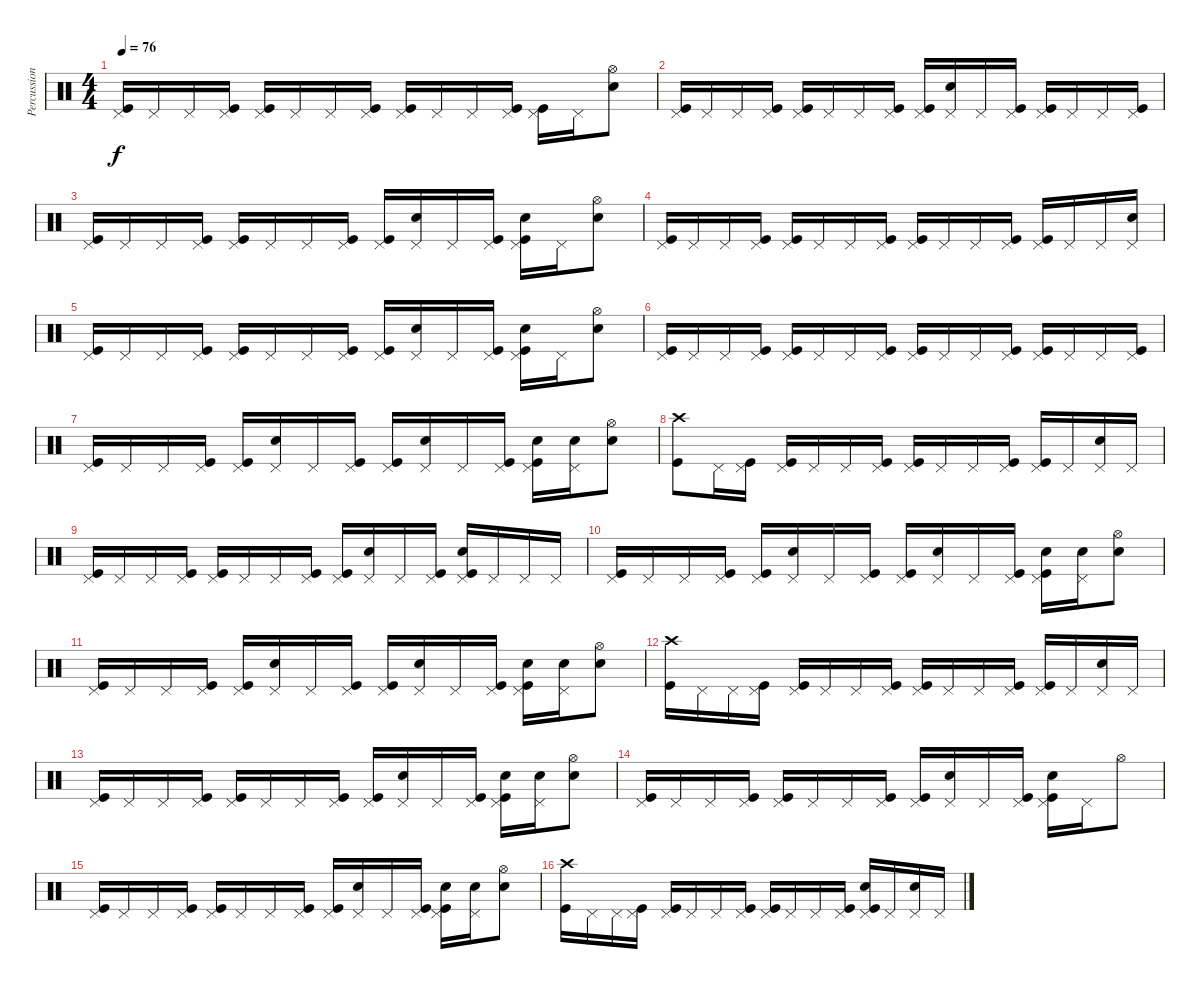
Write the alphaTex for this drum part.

\track ("Percussions" "Percussion") {instrument percussion}
\staff {score}
\articulation defaults
\ts (4 4)
\tempo 76
\clef neutral
\ks c
("Kick (hit)" "Pedal Hi-Hat (hit)").16{dy f} "Pedal Hi-Hat (hit)".16 "Pedal Hi-Hat (hit)".16 ("Pedal Hi-Hat (hit)" "Kick (hit)").16 ("Pedal Hi-Hat (hit)" "Kick (hit)").16 "Pedal Hi-Hat (hit)".16 "Pedal Hi-Hat (hit)".16 ("Pedal Hi-Hat (hit)" "Kick (hit)").16 ("Pedal Hi-Hat (hit)" "Kick (hit)").16 "Pedal Hi-Hat (hit)".16 "Pedal Hi-Hat (hit)".16 ("Pedal Hi-Hat (hit)" "Kick (hit)").16 ("Pedal Hi-Hat (hit)" "Kick (hit)").16 "Pedal Hi-Hat (hit)".16 ("Hi-Hat (open)" "Electric Snare (hit)").8 |
("Kick (hit)" "Pedal Hi-Hat (hit)").16 "Pedal Hi-Hat (hit)".16 "Pedal Hi-Hat (hit)".16 ("Pedal Hi-Hat (hit)" "Kick (hit)").16 ("Pedal Hi-Hat (hit)" "Kick (hit)").16 "Pedal Hi-Hat (hit)".16 "Pedal Hi-Hat (hit)".16 ("Pedal Hi-Hat (hit)" "Kick (hit)").16 ("Pedal Hi-Hat (hit)" "Kick (hit)").16 ("Pedal Hi-Hat (hit)" "Electric Snare (hit)").16 "Pedal Hi-Hat (hit)".16 ("Pedal Hi-Hat (hit)" "Kick (hit)").16 ("Pedal Hi-Hat (hit)" "Kick (hit)").16 "Pedal Hi-Hat (hit)".16 "Pedal Hi-Hat (hit)".16 ("Pedal Hi-Hat (hit)" "Kick (hit)").16 |
("Pedal Hi-Hat (hit)" "Kick (hit)").16 "Pedal Hi-Hat (hit)".16 "Pedal Hi-Hat (hit)".16 ("Pedal Hi-Hat (hit)" "Kick (hit)").16 ("Pedal Hi-Hat (hit)" "Kick (hit)").16 "Pedal Hi-Hat (hit)".16 "Pedal Hi-Hat (hit)".16 ("Pedal Hi-Hat (hit)" "Kick (hit)").16 ("Pedal Hi-Hat (hit)" "Kick (hit)").16 ("Pedal Hi-Hat (hit)" "Electric Snare (hit)").16 "Pedal Hi-Hat (hit)".16 ("Pedal Hi-Hat (hit)" "Kick (hit)").16 ("Pedal Hi-Hat (hit)" "Kick (hit)" "Electric Snare (hit)").16 "Pedal Hi-Hat (hit)".16 ("Electric Snare (hit)" "Hi-Hat (open)").8 |
("Kick (hit)" "Pedal Hi-Hat (hit)").16 "Pedal Hi-Hat (hit)".16 "Pedal Hi-Hat (hit)".16 ("Pedal Hi-Hat (hit)" "Kick (hit)").16 ("Pedal Hi-Hat (hit)" "Kick (hit)").16 "Pedal Hi-Hat (hit)".16 "Pedal Hi-Hat (hit)".16 ("Pedal Hi-Hat (hit)" "Kick (hit)").16 ("Pedal Hi-Hat (hit)" "Kick (hit)").16 "Pedal Hi-Hat (hit)".16 "Pedal Hi-Hat (hit)".16 ("Pedal Hi-Hat (hit)" "Kick (hit)").16 ("Pedal Hi-Hat (hit)" "Kick (hit)").16 "Pedal Hi-Hat (hit)".16 "Pedal Hi-Hat (hit)".16 ("Pedal Hi-Hat (hit)" "Electric Snare (hit)").16 |
("Kick (hit)" "Pedal Hi-Hat (hit)").16 "Pedal Hi-Hat (hit)".16 "Pedal Hi-Hat (hit)".16 ("Pedal Hi-Hat (hit)" "Kick (hit)").16 ("Pedal Hi-Hat (hit)" "Kick (hit)").16 "Pedal Hi-Hat (hit)".16 "Pedal Hi-Hat (hit)".16 ("Pedal Hi-Hat (hit)" "Kick (hit)").16 ("Pedal Hi-Hat (hit)" "Kick (hit)").16 ("Pedal Hi-Hat (hit)" "Electric Snare (hit)").16 "Pedal Hi-Hat (hit)".16 ("Pedal Hi-Hat (hit)" "Kick (hit)").16 ("Pedal Hi-Hat (hit)" "Kick (hit)" "Electric Snare (hit)").16 "Pedal Hi-Hat (hit)".16 ("Hi-Hat (open)" "Electric Snare (hit)").8 |
("Pedal Hi-Hat (hit)" "Kick (hit)").16 "Pedal Hi-Hat (hit)".16 "Pedal Hi-Hat (hit)".16 ("Pedal Hi-Hat (hit)" "Kick (hit)").16 ("Pedal Hi-Hat (hit)" "Kick (hit)").16 "Pedal Hi-Hat (hit)".16 "Pedal Hi-Hat (hit)".16 ("Pedal Hi-Hat (hit)" "Kick (hit)").16 ("Pedal Hi-Hat (hit)" "Kick (hit)").16 "Pedal Hi-Hat (hit)".16 "Pedal Hi-Hat (hit)".16 ("Pedal Hi-Hat (hit)" "Kick (hit)").16 ("Pedal Hi-Hat (hit)" "Kick (hit)").16 "Pedal Hi-Hat (hit)".16 "Pedal Hi-Hat (hit)".16 ("Pedal Hi-Hat (hit)" "Kick (hit)").16 |
("Pedal Hi-Hat (hit)" "Kick (hit)").16 "Pedal Hi-Hat (hit)".16 "Pedal Hi-Hat (hit)".16 ("Pedal Hi-Hat (hit)" "Kick (hit)").16 ("Pedal Hi-Hat (hit)" "Kick (hit)").16 ("Pedal Hi-Hat (hit)" "Electric Snare (hit)").16 "Pedal Hi-Hat (hit)".16 ("Pedal Hi-Hat (hit)" "Kick (hit)").16 ("Pedal Hi-Hat (hit)" "Kick (hit)").16 ("Pedal Hi-Hat (hit)" "Electric Snare (hit)").16 "Pedal Hi-Hat (hit)".16 ("Pedal Hi-Hat (hit)" "Kick (hit)").16 ("Pedal Hi-Hat (hit)" "Kick (hit)" "Electric Snare (hit)").16 ("Pedal Hi-Hat (hit)" "Electric Snare (hit)").16 ("Electric Snare (hit)" "Hi-Hat (open)").8 |
("Kick (hit)" "Crash high (hit)").8 "Pedal Hi-Hat (hit)".16 ("Pedal Hi-Hat (hit)" "Kick (hit)").16 ("Pedal Hi-Hat (hit)" "Kick (hit)").16 "Pedal Hi-Hat (hit)".16 "Pedal Hi-Hat (hit)".16 ("Pedal Hi-Hat (hit)" "Kick (hit)").16 ("Pedal Hi-Hat (hit)" "Kick (hit)").16 "Pedal Hi-Hat (hit)".16 "Pedal Hi-Hat (hit)".16 ("Pedal Hi-Hat (hit)" "Kick (hit)").16 ("Pedal Hi-Hat (hit)" "Kick (hit)").16 "Pedal Hi-Hat (hit)".16 ("Pedal Hi-Hat (hit)" "Electric Snare (hit)").16 "Pedal Hi-Hat (hit)".16 |
("Kick (hit)" "Pedal Hi-Hat (hit)").16 "Pedal Hi-Hat (hit)".16 "Pedal Hi-Hat (hit)".16 ("Pedal Hi-Hat (hit)" "Kick (hit)").16 ("Pedal Hi-Hat (hit)" "Kick (hit)").16 "Pedal Hi-Hat (hit)".16 "Pedal Hi-Hat (hit)".16 ("Pedal Hi-Hat (hit)" "Kick (hit)").16 ("Pedal Hi-Hat (hit)" "Kick (hit)").16 ("Pedal Hi-Hat (hit)" "Electric Snare (hit)").16 "Pedal Hi-Hat (hit)".16 ("Pedal Hi-Hat (hit)" "Kick (hit)").16 ("Pedal Hi-Hat (hit)" "Kick (hit)" "Electric Snare (hit)").16 "Pedal Hi-Hat (hit)".16 "Pedal Hi-Hat (hit)".16 "Pedal Hi-Hat (hit)".16 |
("Kick (hit)" "Pedal Hi-Hat (hit)").16 "Pedal Hi-Hat (hit)".16 "Pedal Hi-Hat (hit)".16 ("Pedal Hi-Hat (hit)" "Kick (hit)").16 ("Pedal Hi-Hat (hit)" "Kick (hit)").16 ("Pedal Hi-Hat (hit)" "Electric Snare (hit)").16 "Pedal Hi-Hat (hit)".16 ("Pedal Hi-Hat (hit)" "Kick (hit)").16 ("Pedal Hi-Hat (hit)" "Kick (hit)").16 ("Pedal Hi-Hat (hit)" "Electric Snare (hit)").16 "Pedal Hi-Hat (hit)".16 ("Pedal Hi-Hat (hit)" "Kick (hit)").16 ("Pedal Hi-Hat (hit)" "Kick (hit)" "Electric Snare (hit)").16 ("Pedal Hi-Hat (hit)" "Electric Snare (hit)").16 ("Electric Snare (hit)" "Hi-Hat (open)").8 |
("Kick (hit)" "Pedal Hi-Hat (hit)").16 "Pedal Hi-Hat (hit)".16 "Pedal Hi-Hat (hit)".16 ("Pedal Hi-Hat (hit)" "Kick (hit)").16 ("Pedal Hi-Hat (hit)" "Kick (hit)").16 ("Pedal Hi-Hat (hit)" "Electric Snare (hit)").16 "Pedal Hi-Hat (hit)".16 ("Pedal Hi-Hat (hit)" "Kick (hit)").16 ("Pedal Hi-Hat (hit)" "Kick (hit)").16 ("Pedal Hi-Hat (hit)" "Electric Snare (hit)").16 "Pedal Hi-Hat (hit)".16 ("Pedal Hi-Hat (hit)" "Kick (hit)").16 ("Pedal Hi-Hat (hit)" "Kick (hit)" "Electric Snare (hit)").16 ("Pedal Hi-Hat (hit)" "Electric Snare (hit)").16 ("Electric Snare (hit)" "Hi-Hat (open)").8 |
("Kick (hit)" "Crash high (hit)").16 "Pedal Hi-Hat (hit)".16 "Pedal Hi-Hat (hit)".16 ("Pedal Hi-Hat (hit)" "Kick (hit)").16 ("Pedal Hi-Hat (hit)" "Kick (hit)").16 "Pedal Hi-Hat (hit)".16 "Pedal Hi-Hat (hit)".16 ("Pedal Hi-Hat (hit)" "Kick (hit)").16 ("Pedal Hi-Hat (hit)" "Kick (hit)").16 "Pedal Hi-Hat (hit)".16 "Pedal Hi-Hat (hit)".16 ("Pedal Hi-Hat (hit)" "Kick (hit)").16 ("Pedal Hi-Hat (hit)" "Kick (hit)").16 "Pedal Hi-Hat (hit)".16 ("Pedal Hi-Hat (hit)" "Electric Snare (hit)").16 "Pedal Hi-Hat (hit)".16 |
("Kick (hit)" "Pedal Hi-Hat (hit)").16 "Pedal Hi-Hat (hit)".16 "Pedal Hi-Hat (hit)".16 ("Pedal Hi-Hat (hit)" "Kick (hit)").16 ("Pedal Hi-Hat (hit)" "Kick (hit)").16 "Pedal Hi-Hat (hit)".16 "Pedal Hi-Hat (hit)".16 ("Pedal Hi-Hat (hit)" "Kick (hit)").16 ("Pedal Hi-Hat (hit)" "Kick (hit)").16 ("Pedal Hi-Hat (hit)" "Electric Snare (hit)").16 "Pedal Hi-Hat (hit)".16 ("Pedal Hi-Hat (hit)" "Kick (hit)").16 ("Pedal Hi-Hat (hit)" "Kick (hit)" "Electric Snare (hit)").16 ("Pedal Hi-Hat (hit)" "Electric Snare (hit)").16 ("Electric Snare (hit)" "Hi-Hat (open)").8 |
("Pedal Hi-Hat (hit)" "Kick (hit)").16 "Pedal Hi-Hat (hit)".16 "Pedal Hi-Hat (hit)".16 ("Pedal Hi-Hat (hit)" "Kick (hit)").16 ("Pedal Hi-Hat (hit)" "Kick (hit)").16 "Pedal Hi-Hat (hit)".16 "Pedal Hi-Hat (hit)".16 ("Pedal Hi-Hat (hit)" "Kick (hit)").16 ("Pedal Hi-Hat (hit)" "Kick (hit)").16 ("Pedal Hi-Hat (hit)" "Electric Snare (hit)").16 "Pedal Hi-Hat (hit)".16 ("Pedal Hi-Hat (hit)" "Kick (hit)").16 ("Pedal Hi-Hat (hit)" "Kick (hit)" "Electric Snare (hit)").16 "Pedal Hi-Hat (hit)".16 "Hi-Hat (open)".8 |
("Pedal Hi-Hat (hit)" "Kick (hit)").16 "Pedal Hi-Hat (hit)".16 "Pedal Hi-Hat (hit)".16 ("Pedal Hi-Hat (hit)" "Kick (hit)").16 ("Pedal Hi-Hat (hit)" "Kick (hit)").16 "Pedal Hi-Hat (hit)".16 "Pedal Hi-Hat (hit)".16 ("Pedal Hi-Hat (hit)" "Kick (hit)").16 ("Pedal Hi-Hat (hit)" "Kick (hit)").16 ("Pedal Hi-Hat (hit)" "Electric Snare (hit)").16 "Pedal Hi-Hat (hit)".16 ("Pedal Hi-Hat (hit)" "Kick (hit)").16 ("Pedal Hi-Hat (hit)" "Kick (hit)" "Electric Snare (hit)").16 ("Pedal Hi-Hat (hit)" "Electric Snare (hit)").16 ("Electric Snare (hit)" "Hi-Hat (open)").8 |
("Kick (hit)" "Crash high (hit)").16 "Pedal Hi-Hat (hit)".16 "Pedal Hi-Hat (hit)".16 ("Pedal Hi-Hat (hit)" "Kick (hit)").16 ("Pedal Hi-Hat (hit)" "Kick (hit)").16 "Pedal Hi-Hat (hit)".16 "Pedal Hi-Hat (hit)".16 ("Pedal Hi-Hat (hit)" "Kick (hit)").16 ("Pedal Hi-Hat (hit)" "Kick (hit)").16 "Pedal Hi-Hat (hit)".16 "Pedal Hi-Hat (hit)".16 ("Pedal Hi-Hat (hit)" "Kick (hit)").16 ("Pedal Hi-Hat (hit)" "Kick (hit)" "Electric Snare (hit)").16 "Pedal Hi-Hat (hit)".16 ("Pedal Hi-Hat (hit)" "Electric Snare (hit)").16 "Pedal Hi-Hat (hit)".16
